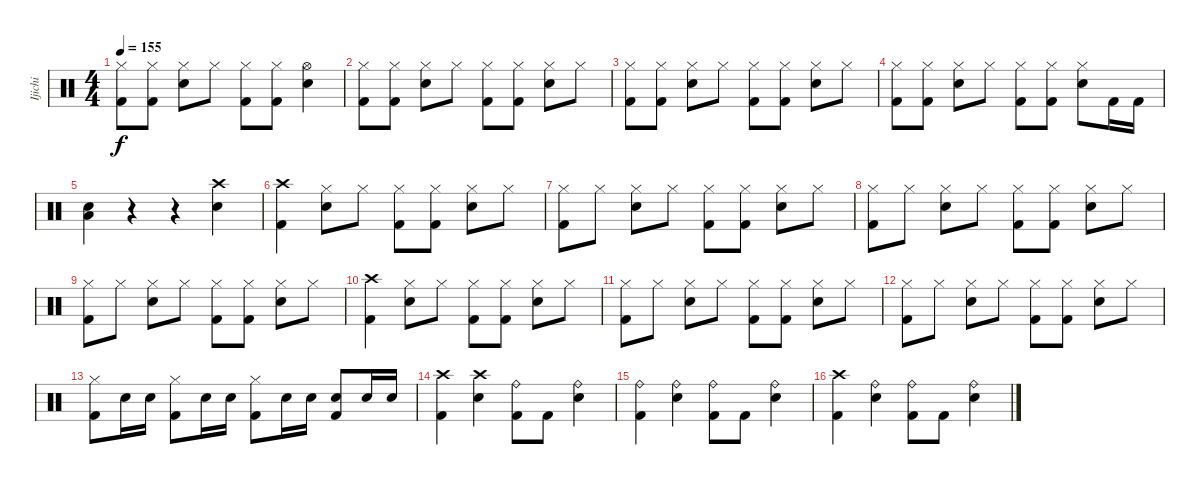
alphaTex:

\track ("Ijichi" "Ijichi") {instrument percussion}
\staff {score}
\articulation defaults
\ts (4 4)
\tempo 155
\clef neutral
\ks c
("Hi-Hat (closed)" "Kick (hit) 2").8{dy f} ("Hi-Hat (closed)" "Kick (hit) 2").8 ("Hi-Hat (closed)" "Snare (hit) 2").8 "Hi-Hat (closed)".8 ("Hi-Hat (closed)" "Kick (hit) 2").8 ("Hi-Hat (closed)" "Kick (hit) 2").8 ("Hi-Hat (open)" "Snare (hit) 2").4 |
("Hi-Hat (closed)" "Kick (hit) 2").8 ("Hi-Hat (closed)" "Kick (hit) 2").8 ("Hi-Hat (closed)" "Snare (hit) 2").8 "Hi-Hat (closed)".8 ("Hi-Hat (closed)" "Kick (hit) 2").8 ("Hi-Hat (closed)" "Kick (hit) 2").8 ("Hi-Hat (closed)" "Snare (hit) 2").8 "Hi-Hat (closed)".8 |
("Hi-Hat (closed)" "Kick (hit) 2").8 ("Hi-Hat (closed)" "Kick (hit) 2").8 ("Hi-Hat (closed)" "Snare (hit) 2").8 "Hi-Hat (closed)".8 ("Hi-Hat (closed)" "Kick (hit) 2").8 ("Hi-Hat (closed)" "Kick (hit) 2").8 ("Hi-Hat (closed)" "Snare (hit) 2").8 "Hi-Hat (closed)".8 |
("Hi-Hat (closed)" "Kick (hit) 2").8 ("Hi-Hat (closed)" "Kick (hit) 2").8 ("Hi-Hat (closed)" "Snare (hit) 2").8 "Hi-Hat (closed)".8 ("Hi-Hat (closed)" "Kick (hit) 2").8 ("Hi-Hat (closed)" "Kick (hit) 2").8 ("Hi-Hat (closed)" "Snare (hit) 2").8 "Kick (hit) 2".16 "Kick (hit) 2".16 |
("Snare (hit) 2" "Low Floor Tom (hit)").4 r.4 r.4 ("Crash high (hit)" "Snare (hit) 2").4 |
("Crash high (hit)" "Kick (hit) 2").4 ("Hi-Hat (closed)" "Snare (hit) 2").8 "Hi-Hat (closed)".8 ("Hi-Hat (closed)" "Kick (hit) 2").8 ("Hi-Hat (closed)" "Kick (hit) 2").8 ("Hi-Hat (closed)" "Snare (hit) 2").8 "Hi-Hat (closed)".8 |
("Hi-Hat (closed)" "Kick (hit) 2").8 "Hi-Hat (closed)".8 ("Hi-Hat (closed)" "Snare (hit) 2").8 "Hi-Hat (closed)".8 ("Hi-Hat (closed)" "Kick (hit) 2").8 ("Hi-Hat (closed)" "Kick (hit) 2").8 ("Hi-Hat (closed)" "Snare (hit) 2").8 "Hi-Hat (closed)".8 |
("Hi-Hat (closed)" "Kick (hit) 2").8 "Hi-Hat (closed)".8 ("Hi-Hat (closed)" "Snare (hit) 2").8 "Hi-Hat (closed)".8 ("Hi-Hat (closed)" "Kick (hit) 2").8 ("Hi-Hat (closed)" "Kick (hit) 2").8 ("Hi-Hat (closed)" "Snare (hit) 2").8 "Hi-Hat (closed)".8 |
("Hi-Hat (closed)" "Kick (hit) 2").8 "Hi-Hat (closed)".8 ("Hi-Hat (closed)" "Snare (hit) 2").8 "Hi-Hat (closed)".8 ("Hi-Hat (closed)" "Kick (hit) 2").8 ("Hi-Hat (closed)" "Kick (hit) 2").8 ("Hi-Hat (closed)" "Snare (hit) 2").8 "Hi-Hat (closed)".8 |
("Crash high (hit)" "Kick (hit) 2").4 ("Hi-Hat (closed)" "Snare (hit) 2").8 "Hi-Hat (closed)".8 ("Hi-Hat (closed)" "Kick (hit) 2").8 ("Hi-Hat (closed)" "Kick (hit) 2").8 ("Hi-Hat (closed)" "Snare (hit) 2").8 "Hi-Hat (closed)".8 |
("Hi-Hat (closed)" "Kick (hit) 2").8 "Hi-Hat (closed)".8 ("Hi-Hat (closed)" "Snare (hit) 2").8 "Hi-Hat (closed)".8 ("Hi-Hat (closed)" "Kick (hit) 2").8 ("Hi-Hat (closed)" "Kick (hit) 2").8 ("Hi-Hat (closed)" "Snare (hit) 2").8 "Hi-Hat (closed)".8 |
("Hi-Hat (closed)" "Kick (hit) 2").8 "Hi-Hat (closed)".8 ("Hi-Hat (closed)" "Snare (hit) 2").8 "Hi-Hat (closed)".8 ("Hi-Hat (closed)" "Kick (hit) 2").8 ("Hi-Hat (closed)" "Kick (hit) 2").8 ("Hi-Hat (closed)" "Snare (hit) 2").8 "Hi-Hat (closed)".8 |
("Hi-Hat (closed)" "Kick (hit) 2").8 "Snare (hit) 2".16 "Snare (hit) 2".16 ("Hi-Hat (closed)" "Kick (hit) 2").8 "Snare (hit) 2".16 "Snare (hit) 2".16 ("Hi-Hat (closed)" "Kick (hit) 2").8 "Snare (hit) 2".16 "Snare (hit) 2".16 ("Snare (hit) 2" "Kick (hit) 2").8 "Snare (hit) 2".16 "Snare (hit) 2".16 |
("Crash high (hit)" "Kick (hit) 2").4 ("Crash high (hit)" "Snare (hit) 2").4 ("Ride (bell)" "Kick (hit) 2").8 "Kick (hit) 2".8 ("Ride (bell)" "Snare (hit) 2").4 |
("Ride (bell)" "Kick (hit) 2").4 ("Ride (bell)" "Snare (hit) 2").4 ("Ride (bell)" "Kick (hit) 2").8 "Kick (hit) 2".8 ("Ride (bell)" "Snare (hit) 2").4 |
("Crash high (hit)" "Kick (hit) 2").4 ("Ride (bell)" "Snare (hit) 2").4 ("Ride (bell)" "Kick (hit) 2").8 "Kick (hit) 2".8 ("Ride (bell)" "Snare (hit) 2").4
